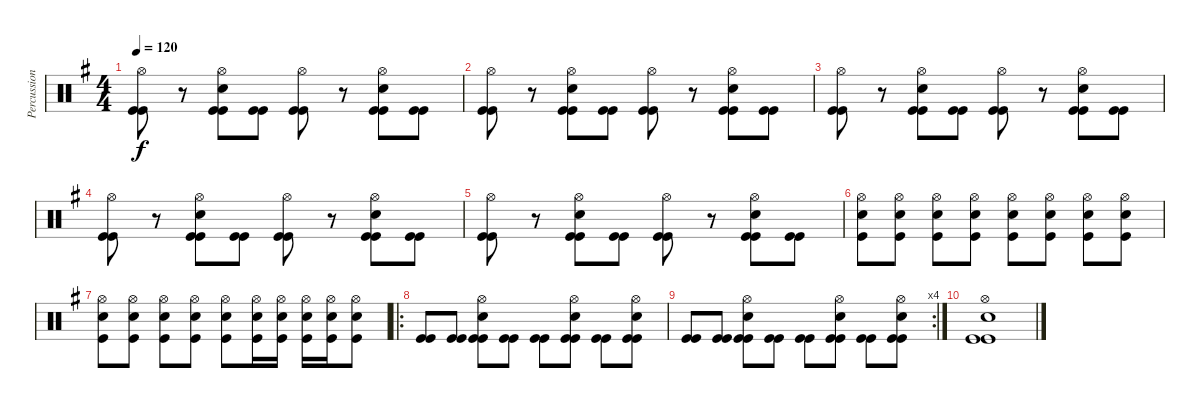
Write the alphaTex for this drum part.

\track ("Percussion" "Percussion") {instrument percussion}
\staff {score}
\articulation defaults
\ts (4 4)
\tempo 120
\clef neutral
\ks eminor
("Hi-Hat (open)" "Kick (hit)" "Kick (hit)").8{dy f} r.8 ("Hi-Hat (open)" "Kick (hit)" "Kick (hit)" "Snare (hit) 2").8 ("Kick (hit)" "Kick (hit)").8 ("Hi-Hat (open)" "Kick (hit)" "Kick (hit)").8 r.8 ("Hi-Hat (open)" "Kick (hit)" "Kick (hit)" "Snare (hit) 2").8 ("Kick (hit)" "Kick (hit)").8 |
("Hi-Hat (open)" "Kick (hit)" "Kick (hit)").8 r.8 ("Hi-Hat (open)" "Kick (hit)" "Kick (hit)" "Snare (hit) 2").8 ("Kick (hit)" "Kick (hit)").8 ("Hi-Hat (open)" "Kick (hit)" "Kick (hit)").8 r.8 ("Hi-Hat (open)" "Kick (hit)" "Kick (hit)" "Snare (hit) 2").8 ("Kick (hit)" "Kick (hit)").8 |
("Hi-Hat (open)" "Kick (hit)" "Kick (hit)").8 r.8 ("Hi-Hat (open)" "Kick (hit)" "Kick (hit)" "Snare (hit) 2").8 ("Kick (hit)" "Kick (hit)").8 ("Hi-Hat (open)" "Kick (hit)" "Kick (hit)").8 r.8 ("Hi-Hat (open)" "Kick (hit)" "Kick (hit)" "Snare (hit) 2").8 ("Kick (hit)" "Kick (hit)").8 |
("Hi-Hat (open)" "Kick (hit)" "Kick (hit)").8 r.8 ("Hi-Hat (open)" "Kick (hit)" "Kick (hit)" "Snare (hit) 2").8 ("Kick (hit)" "Kick (hit)").8 ("Hi-Hat (open)" "Kick (hit)" "Kick (hit)").8 r.8 ("Hi-Hat (open)" "Kick (hit)" "Kick (hit)" "Snare (hit) 2").8 ("Kick (hit)" "Kick (hit)").8 |
("Hi-Hat (open)" "Kick (hit)" "Kick (hit)").8 r.8 ("Hi-Hat (open)" "Kick (hit)" "Kick (hit)" "Snare (hit) 2").8 ("Kick (hit)" "Kick (hit)").8 ("Hi-Hat (open)" "Kick (hit)" "Kick (hit)").8 r.8 ("Hi-Hat (open)" "Kick (hit)" "Kick (hit)" "Snare (hit) 2").8 ("Kick (hit)" "Kick (hit)").8 |
("Hi-Hat (open)" "Kick (hit)" "Snare (hit) 2").8 ("Hi-Hat (open)" "Kick (hit)" "Snare (hit) 2").8 ("Hi-Hat (open)" "Kick (hit)" "Snare (hit) 2").8 ("Hi-Hat (open)" "Kick (hit)" "Snare (hit) 2").8 ("Hi-Hat (open)" "Kick (hit)" "Snare (hit) 2").8 ("Hi-Hat (open)" "Kick (hit)" "Snare (hit) 2").8 ("Hi-Hat (open)" "Kick (hit)" "Snare (hit) 2").8 ("Hi-Hat (open)" "Kick (hit)" "Snare (hit) 2").8 |
("Hi-Hat (open)" "Kick (hit)" "Snare (hit) 2").8 ("Hi-Hat (open)" "Kick (hit)" "Snare (hit) 2").8 ("Hi-Hat (open)" "Kick (hit)" "Snare (hit) 2").8 ("Hi-Hat (open)" "Kick (hit)" "Snare (hit) 2").8 ("Hi-Hat (open)" "Kick (hit)" "Snare (hit) 2").8 ("Hi-Hat (open)" "Kick (hit)" "Snare (hit) 2").16 ("Hi-Hat (open)" "Kick (hit)" "Snare (hit) 2").16 ("Hi-Hat (open)" "Kick (hit)" "Snare (hit) 2").16 ("Hi-Hat (open)" "Kick (hit)" "Snare (hit) 2").16 ("Hi-Hat (open)" "Kick (hit)" "Snare (hit) 2").8 |
\ro
("Kick (hit)" "Kick (hit)").8 ("Kick (hit)" "Kick (hit)").8 ("Hi-Hat (open)" "Kick (hit)" "Kick (hit)" "Snare (hit) 2").8 ("Kick (hit)" "Kick (hit)").8 ("Kick (hit)" "Kick (hit)").8 ("Hi-Hat (open)" "Kick (hit)" "Kick (hit)" "Snare (hit) 2").8 ("Kick (hit)" "Kick (hit)").8 ("Hi-Hat (open)" "Kick (hit)" "Kick (hit)" "Snare (hit) 2").8 |
\rc 4
("Kick (hit)" "Kick (hit)").8 ("Kick (hit)" "Kick (hit)").8 ("Hi-Hat (open)" "Kick (hit)" "Kick (hit)" "Snare (hit) 2").8 ("Kick (hit)" "Kick (hit)").8 ("Kick (hit)" "Kick (hit)").8 ("Hi-Hat (open)" "Kick (hit)" "Kick (hit)" "Snare (hit) 2").8 ("Kick (hit)" "Kick (hit)").8 ("Hi-Hat (open)" "Kick (hit)" "Kick (hit)" "Snare (hit) 2").8 |
("Hi-Hat (open)" "Kick (hit)" "Kick (hit)" "Snare (hit) 2").1
